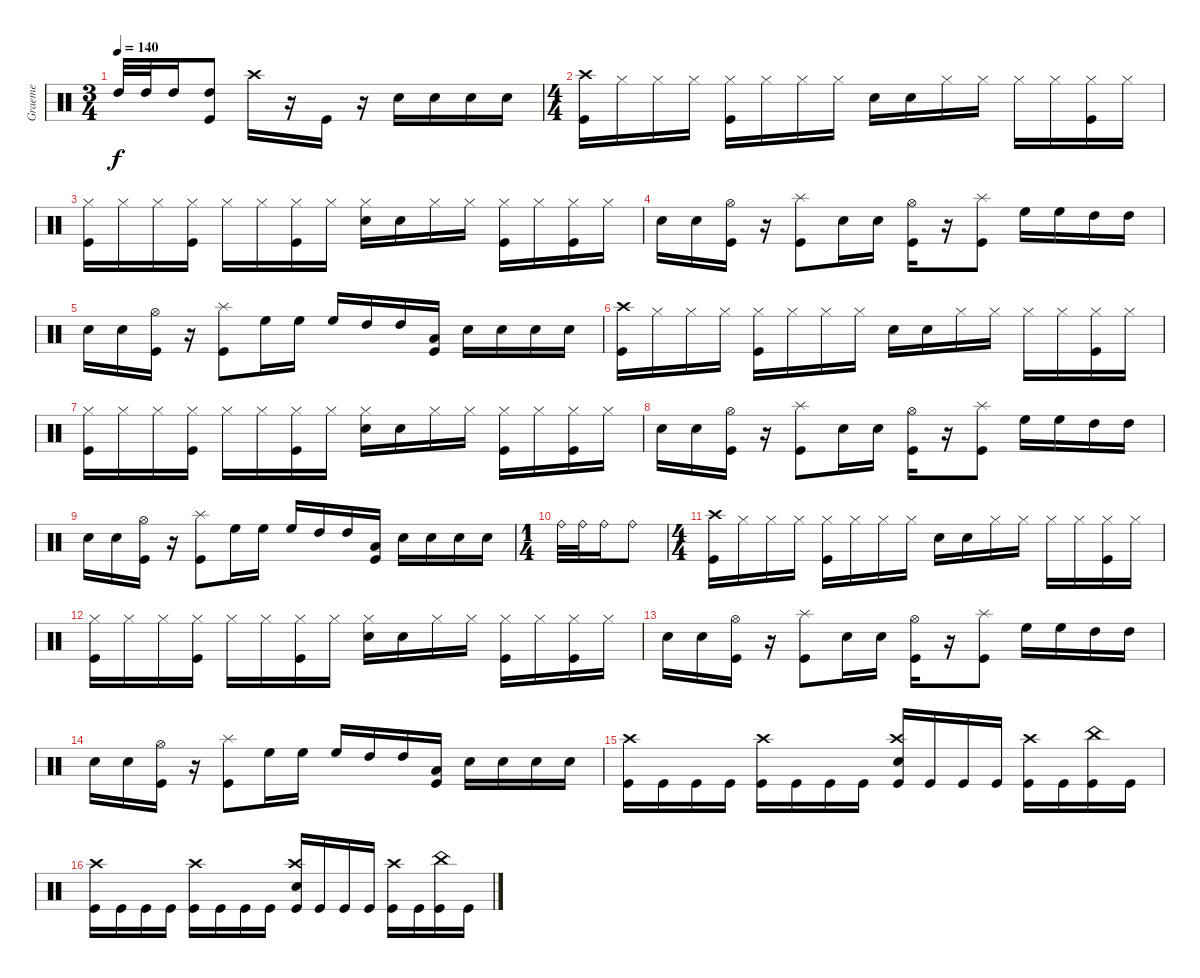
\track ("Graeme" "Graeme") {instrument percussion}
\staff {score}
\articulation defaults
\ts (3 4)
\tempo 140
\clef neutral
\ks c "High Tom (hit)".32{dy f} "High Tom (hit)".32 "High Tom (hit)".16
("High Tom (hit)" "Kick (hit)").8 "Crash high (hit)".16 r.16 "Kick (hit)".16 r.16 "Snare (hit) 2".16 "Snare (hit) 2".16 "Snare (hit) 2".16 "Snare (hit) 2".16 |
\ts (4 4)
("Crash high (hit)" "Kick (hit)").16 "Hi-Hat (closed)".16 "Hi-Hat (closed)".16 "Hi-Hat (closed)".16 ("Hi-Hat (closed)" "Kick (hit)").16 "Hi-Hat (closed)".16 "Hi-Hat (closed)".16 "Hi-Hat (closed)".16 "Snare (hit) 2".16 "Snare (hit) 2".16 "Hi-Hat (closed)".16 "Hi-Hat (closed)".16 "Hi-Hat (closed)".16 "Hi-Hat (closed)".16 ("Hi-Hat (closed)" "Kick (hit)").16 "Hi-Hat (closed)".16 |
("Hi-Hat (closed)" "Kick (hit)").16 "Hi-Hat (closed)".16 "Hi-Hat (closed)".16 ("Hi-Hat (closed)" "Kick (hit)").16 "Hi-Hat (closed)".16 "Hi-Hat (closed)".16 ("Hi-Hat (closed)" "Kick (hit)").16 "Hi-Hat (closed)".16 ("Hi-Hat (closed)" "Snare (hit) 2").16 "Snare (hit) 2".16 "Hi-Hat (closed)".16 "Hi-Hat (closed)".16 ("Hi-Hat (closed)" "Kick (hit)").16 "Hi-Hat (closed)".16 ("Hi-Hat (closed)" "Kick (hit)").16 "Hi-Hat (closed)".16 |
"Snare (hit) 2".16 "Snare (hit) 2".16 ("Hi-Hat (open)" "Kick (hit)").16 r.16 ("Splash (hit)" "Kick (hit)").8 "Snare (hit) 2".16 "Snare (hit) 2".16 ("Hi-Hat (open)" "Kick (hit)").16 r.16 ("Splash (hit)" "Kick (hit)").8 "High Floor Tom (hit)".16 "High Floor Tom (hit)".16 "High Tom (hit)".16 "High Tom (hit)".16 |
"Snare (hit) 2".16 "Snare (hit) 2".16 ("Hi-Hat (open)" "Kick (hit)").16 r.16 ("Splash (hit)" "Kick (hit)").8 "High Floor Tom (hit)".16 "High Floor Tom (hit)".16 "High Floor Tom (hit)".16 "High Tom (hit)".16 "High Tom (hit)".16 ("Low Floor Tom (hit)" "Kick (hit)").16 "Snare (hit) 2".16 "Snare (hit) 2".16 "Snare (hit) 2".16 "Snare (hit) 2".16 |
("Crash high (hit)" "Kick (hit)").16 "Hi-Hat (closed)".16 "Hi-Hat (closed)".16 "Hi-Hat (closed)".16 ("Hi-Hat (closed)" "Kick (hit)").16 "Hi-Hat (closed)".16 "Hi-Hat (closed)".16 "Hi-Hat (closed)".16 "Snare (hit) 2".16 "Snare (hit) 2".16 "Hi-Hat (closed)".16 "Hi-Hat (closed)".16 "Hi-Hat (closed)".16 "Hi-Hat (closed)".16 ("Hi-Hat (closed)" "Kick (hit)").16 "Hi-Hat (closed)".16 |
("Hi-Hat (closed)" "Kick (hit)").16 "Hi-Hat (closed)".16 "Hi-Hat (closed)".16 ("Hi-Hat (closed)" "Kick (hit)").16 "Hi-Hat (closed)".16 "Hi-Hat (closed)".16 ("Hi-Hat (closed)" "Kick (hit)").16 "Hi-Hat (closed)".16 ("Hi-Hat (closed)" "Snare (hit) 2").16 "Snare (hit) 2".16 "Hi-Hat (closed)".16 "Hi-Hat (closed)".16 ("Hi-Hat (closed)" "Kick (hit)").16 "Hi-Hat (closed)".16 ("Hi-Hat (closed)" "Kick (hit)").16 "Hi-Hat (closed)".16 |
"Snare (hit) 2".16 "Snare (hit) 2".16 ("Hi-Hat (open)" "Kick (hit)").16 r.16 ("Splash (hit)" "Kick (hit)").8 "Snare (hit) 2".16 "Snare (hit) 2".16 ("Hi-Hat (open)" "Kick (hit)").16 r.16 ("Splash (hit)" "Kick (hit)").8 "High Floor Tom (hit)".16 "High Floor Tom (hit)".16 "High Tom (hit)".16 "High Tom (hit)".16 |
"Snare (hit) 2".16 "Snare (hit) 2".16 ("Hi-Hat (open)" "Kick (hit)").16 r.16 ("Splash (hit)" "Kick (hit)").8 "High Floor Tom (hit)".16 "High Floor Tom (hit)".16 "High Floor Tom (hit)".16 "High Tom (hit)".16 "High Tom (hit)".16 ("Low Floor Tom (hit)" "Kick (hit)").16 "Snare (hit) 2".16 "Snare (hit) 2".16 "Snare (hit) 2".16 "Snare (hit) 2".16 |
\ts (1 4)
"Ride (bell)".32 "Ride (bell)".32 "Ride (bell)".16 "Ride (bell)".8 |
\ts (4 4)
("Crash high (hit)" "Kick (hit)").16 "Hi-Hat (closed)".16 "Hi-Hat (closed)".16 "Hi-Hat (closed)".16 ("Hi-Hat (closed)" "Kick (hit)").16 "Hi-Hat (closed)".16 "Hi-Hat (closed)".16 "Hi-Hat (closed)".16 "Snare (hit) 2".16 "Snare (hit) 2".16 "Hi-Hat (closed)".16 "Hi-Hat (closed)".16 "Hi-Hat (closed)".16 "Hi-Hat (closed)".16 ("Hi-Hat (closed)" "Kick (hit)").16 "Hi-Hat (closed)".16 |
("Hi-Hat (closed)" "Kick (hit)").16 "Hi-Hat (closed)".16 "Hi-Hat (closed)".16 ("Hi-Hat (closed)" "Kick (hit)").16 "Hi-Hat (closed)".16 "Hi-Hat (closed)".16 ("Hi-Hat (closed)" "Kick (hit)").16 "Hi-Hat (closed)".16 ("Hi-Hat (closed)" "Snare (hit) 2").16 "Snare (hit) 2".16 "Hi-Hat (closed)".16 "Hi-Hat (closed)".16 ("Hi-Hat (closed)" "Kick (hit)").16 "Hi-Hat (closed)".16 ("Hi-Hat (closed)" "Kick (hit)").16 "Hi-Hat (closed)".16 |
"Snare (hit) 2".16 "Snare (hit) 2".16 ("Hi-Hat (open)" "Kick (hit)").16 r.16 ("Splash (hit)" "Kick (hit)").8 "Snare (hit) 2".16 "Snare (hit) 2".16 ("Hi-Hat (open)" "Kick (hit)").16 r.16 ("Splash (hit)" "Kick (hit)").8 "High Floor Tom (hit)".16 "High Floor Tom (hit)".16 "High Tom (hit)".16 "High Tom (hit)".16 |
"Snare (hit) 2".16 "Snare (hit) 2".16 ("Hi-Hat (open)" "Kick (hit)").16 r.16 ("Splash (hit)" "Kick (hit)").8 "High Floor Tom (hit)".16 "High Floor Tom (hit)".16 "High Floor Tom (hit)".16 "High Tom (hit)".16 "High Tom (hit)".16 ("Low Floor Tom (hit)" "Kick (hit)").16 "Snare (hit) 2".16 "Snare (hit) 2".16 "Snare (hit) 2".16 "Snare (hit) 2".16 |
("Crash high (hit)" "Kick (hit)").16 "Kick (hit)".16 "Kick (hit)".16 "Kick (hit)".16 ("Crash high (hit)" "Kick (hit)").16 "Kick (hit)".16 "Kick (hit)".16 "Kick (hit)".16 ("Crash high (hit)" "Snare (hit) 2" "Kick (hit)").16 "Kick (hit)".16 "Kick (hit)".16 "Kick (hit)".16 ("Crash high (hit)" "Kick (hit)").16 "Kick (hit)".16 ("China (hit)" "Kick (hit)").16 "Kick (hit)".16 |
("Crash high (hit)" "Kick (hit)").16 "Kick (hit)".16 "Kick (hit)".16 "Kick (hit)".16 ("Crash high (hit)" "Kick (hit)").16 "Kick (hit)".16 "Kick (hit)".16 "Kick (hit)".16 ("Crash high (hit)" "Snare (hit) 2" "Kick (hit)").16 "Kick (hit)".16 "Kick (hit)".16 "Kick (hit)".16 ("Crash high (hit)" "Kick (hit)").16 "Kick (hit)".16 ("China (hit)" "Kick (hit)").16 "Kick (hit)".16
